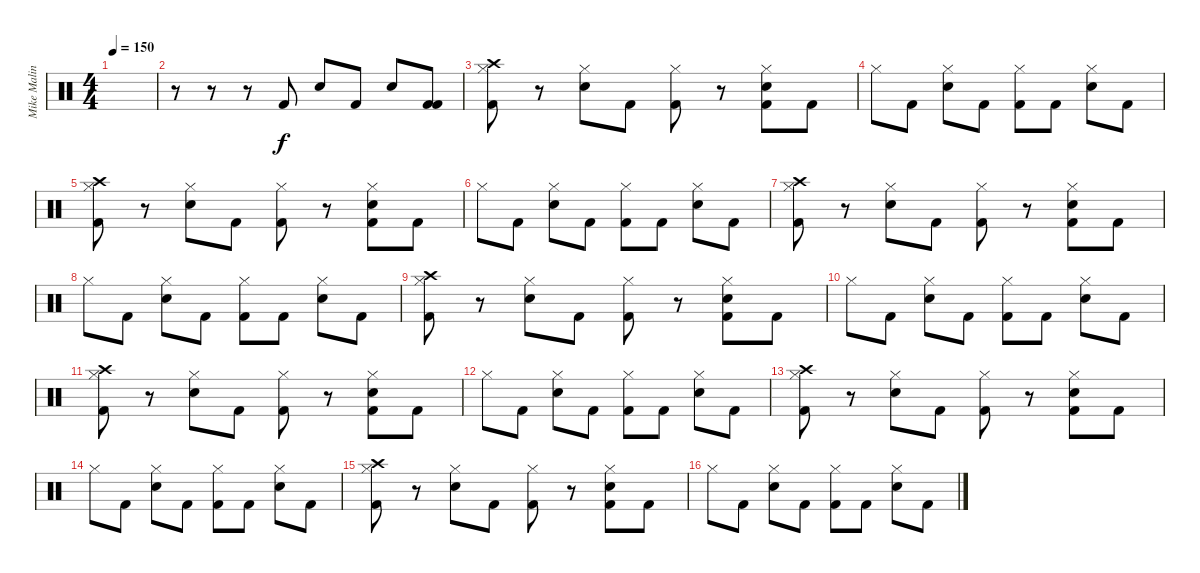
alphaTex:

\track ("Mike Malinin - Drums" "Mike Malin") {instrument percussion}
\staff {score}
\articulation defaults
\ts (4 4)
\tempo 150
\clef neutral
\ks c
|
r.8 r.8 r.8 "Kick (hit) 2".8 "Snare (hit) 2".8 "Kick (hit) 2".8 "Snare (hit) 2".8 ("Kick (hit) 2" "Kick (hit) 2").8 |
("Crash high (hit)" "Hi-Hat (closed)" "Kick (hit) 2").8{dy f} r.8 ("Hi-Hat (closed)" "Snare (hit) 2").8 "Kick (hit) 2".8 ("Hi-Hat (closed)" "Kick (hit) 2").8 r.8 ("Hi-Hat (closed)" "Snare (hit) 2" "Kick (hit) 2").8 "Kick (hit) 2".8 |
"Hi-Hat (closed)".8 "Kick (hit) 2".8 ("Hi-Hat (closed)" "Snare (hit) 2").8 "Kick (hit) 2".8 ("Hi-Hat (closed)" "Kick (hit) 2").8 "Kick (hit) 2".8 ("Hi-Hat (closed)" "Snare (hit) 2").8 "Kick (hit) 2".8 |
("Crash high (hit)" "Hi-Hat (closed)" "Kick (hit) 2").8 r.8 ("Hi-Hat (closed)" "Snare (hit) 2").8 "Kick (hit) 2".8 ("Hi-Hat (closed)" "Kick (hit) 2").8 r.8 ("Hi-Hat (closed)" "Snare (hit) 2" "Kick (hit) 2").8 "Kick (hit) 2".8 |
"Hi-Hat (closed)".8 "Kick (hit) 2".8 ("Hi-Hat (closed)" "Snare (hit) 2").8 "Kick (hit) 2".8 ("Hi-Hat (closed)" "Kick (hit) 2").8 "Kick (hit) 2".8 ("Hi-Hat (closed)" "Snare (hit) 2").8 "Kick (hit) 2".8 |
("Crash high (hit)" "Hi-Hat (closed)" "Kick (hit) 2").8 r.8 ("Hi-Hat (closed)" "Snare (hit) 2").8 "Kick (hit) 2".8 ("Hi-Hat (closed)" "Kick (hit) 2").8 r.8 ("Hi-Hat (closed)" "Snare (hit) 2" "Kick (hit) 2").8 "Kick (hit) 2".8 |
"Hi-Hat (closed)".8 "Kick (hit) 2".8 ("Hi-Hat (closed)" "Snare (hit) 2").8 "Kick (hit) 2".8 ("Hi-Hat (closed)" "Kick (hit) 2").8 "Kick (hit) 2".8 ("Hi-Hat (closed)" "Snare (hit) 2").8 "Kick (hit) 2".8 |
("Crash high (hit)" "Hi-Hat (closed)" "Kick (hit) 2").8 r.8 ("Hi-Hat (closed)" "Snare (hit) 2").8 "Kick (hit) 2".8 ("Hi-Hat (closed)" "Kick (hit) 2").8 r.8 ("Hi-Hat (closed)" "Snare (hit) 2" "Kick (hit) 2").8 "Kick (hit) 2".8 |
"Hi-Hat (closed)".8 "Kick (hit) 2".8 ("Hi-Hat (closed)" "Snare (hit) 2").8 "Kick (hit) 2".8 ("Hi-Hat (closed)" "Kick (hit) 2").8 "Kick (hit) 2".8 ("Hi-Hat (closed)" "Snare (hit) 2").8 "Kick (hit) 2".8 |
("Crash high (hit)" "Hi-Hat (closed)" "Kick (hit) 2").8 r.8 ("Hi-Hat (closed)" "Snare (hit) 2").8 "Kick (hit) 2".8 ("Hi-Hat (closed)" "Kick (hit) 2").8 r.8 ("Hi-Hat (closed)" "Snare (hit) 2" "Kick (hit) 2").8 "Kick (hit) 2".8 |
"Hi-Hat (closed)".8 "Kick (hit) 2".8 ("Hi-Hat (closed)" "Snare (hit) 2").8 "Kick (hit) 2".8 ("Hi-Hat (closed)" "Kick (hit) 2").8 "Kick (hit) 2".8 ("Hi-Hat (closed)" "Snare (hit) 2").8 "Kick (hit) 2".8 |
("Crash high (hit)" "Hi-Hat (closed)" "Kick (hit) 2").8 r.8 ("Hi-Hat (closed)" "Snare (hit) 2").8 "Kick (hit) 2".8 ("Hi-Hat (closed)" "Kick (hit) 2").8 r.8 ("Hi-Hat (closed)" "Snare (hit) 2" "Kick (hit) 2").8 "Kick (hit) 2".8 |
"Hi-Hat (closed)".8 "Kick (hit) 2".8 ("Hi-Hat (closed)" "Snare (hit) 2").8 "Kick (hit) 2".8 ("Hi-Hat (closed)" "Kick (hit) 2").8 "Kick (hit) 2".8 ("Hi-Hat (closed)" "Snare (hit) 2").8 "Kick (hit) 2".8 |
("Crash high (hit)" "Hi-Hat (closed)" "Kick (hit) 2").8 r.8 ("Hi-Hat (closed)" "Snare (hit) 2").8 "Kick (hit) 2".8 ("Hi-Hat (closed)" "Kick (hit) 2").8 r.8 ("Hi-Hat (closed)" "Snare (hit) 2" "Kick (hit) 2").8 "Kick (hit) 2".8 |
"Hi-Hat (closed)".8 "Kick (hit) 2".8 ("Hi-Hat (closed)" "Snare (hit) 2").8 "Kick (hit) 2".8 ("Hi-Hat (closed)" "Kick (hit) 2").8 "Kick (hit) 2".8 ("Hi-Hat (closed)" "Snare (hit) 2").8 "Kick (hit) 2".8
